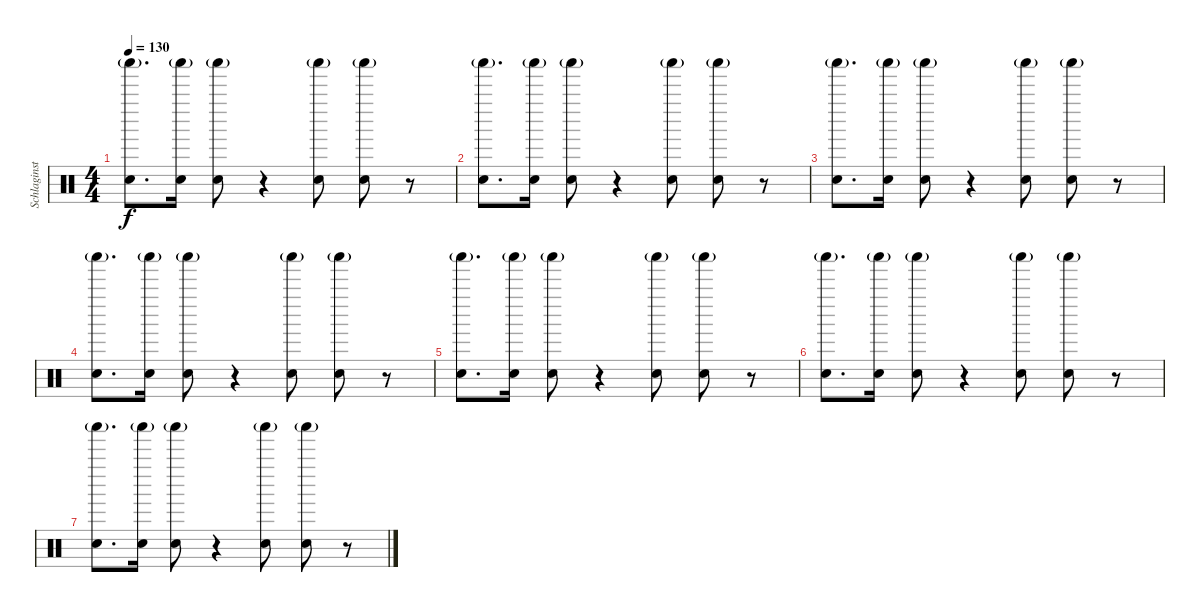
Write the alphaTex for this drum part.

\track ("Schlaginstrumente - Auswahl" "Schlaginst") {instrument percussion}
\staff {score}
\articulation defaults
\ts (4 4)
\tempo 130
\clef neutral
\ks c
("Shaker (hit)"{g} "Hand Clap (hit)").8{d dy f} ("Shaker (hit)"{g} "Hand Clap (hit)").16 ("Shaker (hit)"{g} "Hand Clap (hit)").8 r.4 ("Shaker (hit)"{g} "Hand Clap (hit)").8 ("Shaker (hit)"{g} "Hand Clap (hit)").8 r.8 |
("Shaker (hit)"{g} "Hand Clap (hit)").8{d} ("Shaker (hit)"{g} "Hand Clap (hit)").16 ("Shaker (hit)"{g} "Hand Clap (hit)").8 r.4 ("Shaker (hit)"{g} "Hand Clap (hit)").8 ("Shaker (hit)"{g} "Hand Clap (hit)").8 r.8 |
("Shaker (hit)"{g} "Hand Clap (hit)").8{d} ("Shaker (hit)"{g} "Hand Clap (hit)").16 ("Shaker (hit)"{g} "Hand Clap (hit)").8 r.4 ("Shaker (hit)"{g} "Hand Clap (hit)").8 ("Shaker (hit)"{g} "Hand Clap (hit)").8 r.8 |
("Shaker (hit)"{g} "Hand Clap (hit)").8{d} ("Shaker (hit)"{g} "Hand Clap (hit)").16 ("Shaker (hit)"{g} "Hand Clap (hit)").8 r.4 ("Shaker (hit)"{g} "Hand Clap (hit)").8 ("Shaker (hit)"{g} "Hand Clap (hit)").8 r.8 |
("Shaker (hit)"{g} "Hand Clap (hit)").8{d} ("Shaker (hit)"{g} "Hand Clap (hit)").16 ("Shaker (hit)"{g} "Hand Clap (hit)").8 r.4 ("Shaker (hit)"{g} "Hand Clap (hit)").8 ("Shaker (hit)"{g} "Hand Clap (hit)").8 r.8 |
("Shaker (hit)"{g} "Hand Clap (hit)").8{d} ("Shaker (hit)"{g} "Hand Clap (hit)").16 ("Shaker (hit)"{g} "Hand Clap (hit)").8 r.4 ("Shaker (hit)"{g} "Hand Clap (hit)").8 ("Shaker (hit)"{g} "Hand Clap (hit)").8 r.8 |
("Shaker (hit)"{g} "Hand Clap (hit)").8{d} ("Shaker (hit)"{g} "Hand Clap (hit)").16 ("Shaker (hit)"{g} "Hand Clap (hit)").8 r.4 ("Shaker (hit)"{g} "Hand Clap (hit)").8 ("Shaker (hit)"{g} "Hand Clap (hit)").8 r.8
